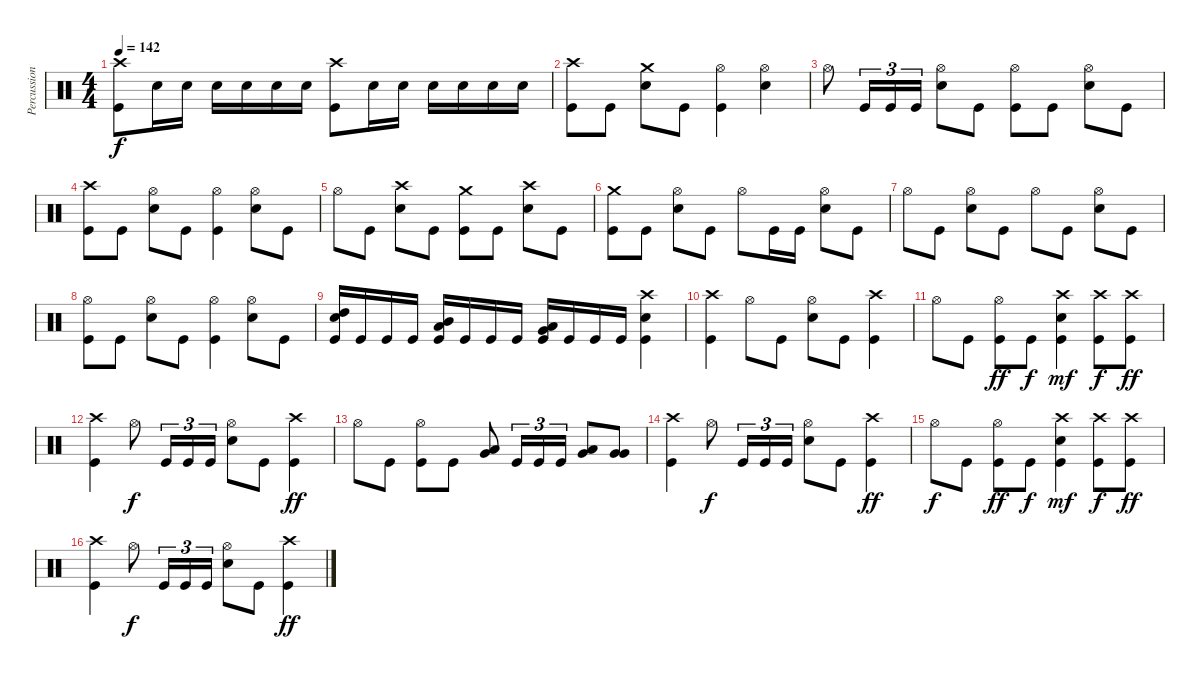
\track ("Percussion" "Percussion") {instrument percussion}
\staff {score}
\articulation defaults
\ts (4 4)
\tempo 142
\clef neutral
\ks c
("Crash high (hit)" "Kick (hit)").8{dy f} "Snare (hit) 2".16 "Snare (hit) 2".16 "Snare (hit) 2".16 "Snare (hit) 2".16 "Snare (hit) 2".16 "Snare (hit) 2".16 ("Crash high (hit)" "Kick (hit)").8 "Snare (hit) 2".16 "Snare (hit) 2".16 "Snare (hit) 2".16 "Snare (hit) 2".16 "Snare (hit) 2".16 "Snare (hit) 2".16 |
("Crash high (hit)" "Kick (hit)").8 "Kick (hit)".8 ("Crash medium (hit)" "Snare (hit) 2").8 "Kick (hit)".8 ("Hi-Hat (open)" "Kick (hit)").4 ("Hi-Hat (open)" "Snare (hit) 2").4 |
"Hi-Hat (open)".8 "Kick (hit)".16{tu (3 2)} "Kick (hit)".16{tu (3 2)} "Kick (hit)".16{tu (3 2)} ("Snare (hit) 2" "Hi-Hat (open)").8 "Kick (hit)".8 ("Hi-Hat (open)" "Kick (hit)").8 "Kick (hit)".8 ("Snare (hit) 2" "Hi-Hat (open)").8 "Kick (hit)".8 |
("Crash high (hit)" "Kick (hit)").8 "Kick (hit)".8 ("Hi-Hat (open)" "Snare (hit) 2").8 "Kick (hit)".8 ("Hi-Hat (open)" "Kick (hit)").4 ("Snare (hit) 2" "Hi-Hat (open)").8 "Kick (hit)".8 |
"Hi-Hat (open)".8 "Kick (hit)".8 ("Crash high (hit)" "Snare (hit) 2").8 "Kick (hit)".8 ("Crash medium (hit)" "Kick (hit)").8 "Kick (hit)".8 ("Crash high (hit)" "Snare (hit) 2").8 "Kick (hit)".8 |
("Crash medium (hit)" "Kick (hit)").8 "Kick (hit)".8 ("Snare (hit) 2" "Hi-Hat (open)").8 "Kick (hit)".8 "Hi-Hat (open)".8 "Kick (hit)".16 "Kick (hit)".16 ("Snare (hit) 2" "Hi-Hat (open)").8 "Kick (hit)".8 |
"Hi-Hat (open)".8 "Kick (hit)".8 ("Snare (hit) 2" "Hi-Hat (open)").8 "Kick (hit)".8 "Hi-Hat (open)".8 "Kick (hit)".8 ("Snare (hit) 2" "Hi-Hat (open)").8 "Kick (hit)".8 |
("Hi-Hat (open)" "Kick (hit)").8 "Kick (hit)".8 ("Hi-Hat (open)" "Snare (hit) 2").8 "Kick (hit)".8 ("Hi-Hat (open)" "Kick (hit)").4 ("Snare (hit) 2" "Hi-Hat (open)").8 "Kick (hit)".8 |
("High Tom (hit)" "Snare (hit) 2" "Kick (hit)").16 "Kick (hit)".16 "Kick (hit)".16 "Kick (hit)".16 ("Mid Tom (hit)" "Low Tom (hit)" "Kick (hit)").16 "Kick (hit)".16 "Kick (hit)".16 "Kick (hit)".16 ("Very Low Tom (hit)" "Low Tom (hit)" "Kick (hit)").16 "Kick (hit)".16 "Kick (hit)".16 "Kick (hit)".16 ("Crash high (hit)" "Snare (hit) 2" "Kick (hit)").4 |
("Crash high (hit)" "Kick (hit)").4 "Hi-Hat (open)".8 "Kick (hit)".8 ("Snare (hit) 2" "Hi-Hat (open)").8 "Kick (hit)".8 ("Kick (hit)" "Crash high (hit)").4 |
"Hi-Hat (open)".8 "Kick (hit)".8 ("Hi-Hat (open)" "Kick (hit)").8{dy ff} "Kick (hit)".8{dy f} ("Snare (hit) 2" "Crash high (hit)" "Kick (hit)").4{dy mf} ("Crash high (hit)" "Kick (hit)").8{dy f} ("Crash high (hit)" "Kick (hit)").8{dy ff} |
("Crash high (hit)" "Kick (hit)").4 "Hi-Hat (open)".8{dy f} "Kick (hit)".16{tu (3 2)} "Kick (hit)".16{tu (3 2)} "Kick (hit)".16{tu (3 2)} ("Snare (hit) 2" "Hi-Hat (open)").8 "Kick (hit)".8 ("Kick (hit)" "Crash high (hit)").4{dy ff} |
"Hi-Hat (open)".8 "Kick (hit)".8 ("Hi-Hat (open)" "Kick (hit)").8 "Kick (hit)".8 ("Low Tom (hit)" "Very Low Tom (hit)").8 "Kick (hit)".16{tu (3 2)} "Kick (hit)".16{tu (3 2)} "Kick (hit)".16{tu (3 2)} ("Very Low Tom (hit)" "Low Floor Tom (hit)").8 ("Very Low Tom (hit)" "Very Low Tom (hit)").8 |
("Crash high (hit)" "Kick (hit)").4 "Hi-Hat (open)".8{dy f} "Kick (hit)".16{tu (3 2)} "Kick (hit)".16{tu (3 2)} "Kick (hit)".16{tu (3 2)} ("Snare (hit) 2" "Hi-Hat (open)").8 "Kick (hit)".8 ("Kick (hit)" "Crash high (hit)").4{dy ff} |
"Hi-Hat (open)".8{dy f} "Kick (hit)".8 ("Hi-Hat (open)" "Kick (hit)").8{dy ff} "Kick (hit)".8{dy f} ("Snare (hit) 2" "Crash high (hit)" "Kick (hit)").4{dy mf} ("Crash high (hit)" "Kick (hit)").8{dy f} ("Crash high (hit)" "Kick (hit)").8{dy ff} |
("Crash high (hit)" "Kick (hit)").4 "Hi-Hat (open)".8{dy f} "Kick (hit)".16{tu (3 2)} "Kick (hit)".16{tu (3 2)} "Kick (hit)".16{tu (3 2)} ("Snare (hit) 2" "Hi-Hat (open)").8 "Kick (hit)".8 ("Kick (hit)" "Crash high (hit)").4{dy ff}
